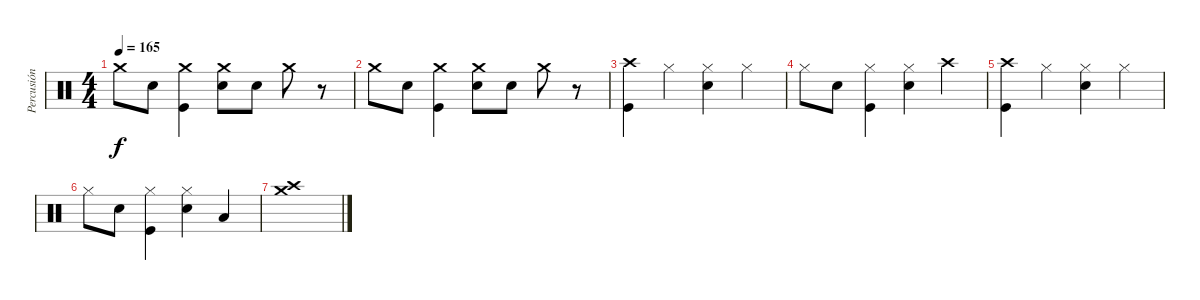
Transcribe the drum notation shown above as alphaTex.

\track ("Percusión" "Percusión") {instrument percussion}
\staff {score}
\articulation defaults
\ts (4 4)
\tempo 165
\clef neutral
\ks c "Crash medium (hit)".8{dy f} "Electric Snare (hit)".8
("Crash medium (hit)" "Kick (hit)").4 ("Crash medium (hit)" "Electric Snare (hit)").8 "Electric Snare (hit)".8 "Crash medium (hit)".8 r.8 |
"Crash medium (hit)".8 "Electric Snare (hit)".8 ("Crash medium (hit)" "Kick (hit)").4 ("Crash medium (hit)" "Electric Snare (hit)").8 "Electric Snare (hit)".8 "Crash medium (hit)".8 r.8 |
("Crash high (hit)" "Kick (hit)").4 "Hi-Hat (closed)".4 ("Electric Snare (hit)" "Hi-Hat (closed)").4 "Hi-Hat (closed)".4 |
"Hi-Hat (closed)".8 "Electric Snare (hit)".8 ("Hi-Hat (closed)" "Kick (hit)").4 ("Electric Snare (hit)" "Hi-Hat (closed)").4 "Crash high (hit)".4 |
("Crash high (hit)" "Kick (hit)").4 "Hi-Hat (closed)".4 ("Electric Snare (hit)" "Hi-Hat (closed)").4 "Hi-Hat (closed)".4 |
"Hi-Hat (closed)".8 "Electric Snare (hit)".8 ("Hi-Hat (closed)" "Kick (hit)").4 ("Electric Snare (hit)" "Hi-Hat (closed)").4 "Low Floor Tom (hit)".4 |
("Crash high (hit)" "Crash medium (hit)").1
